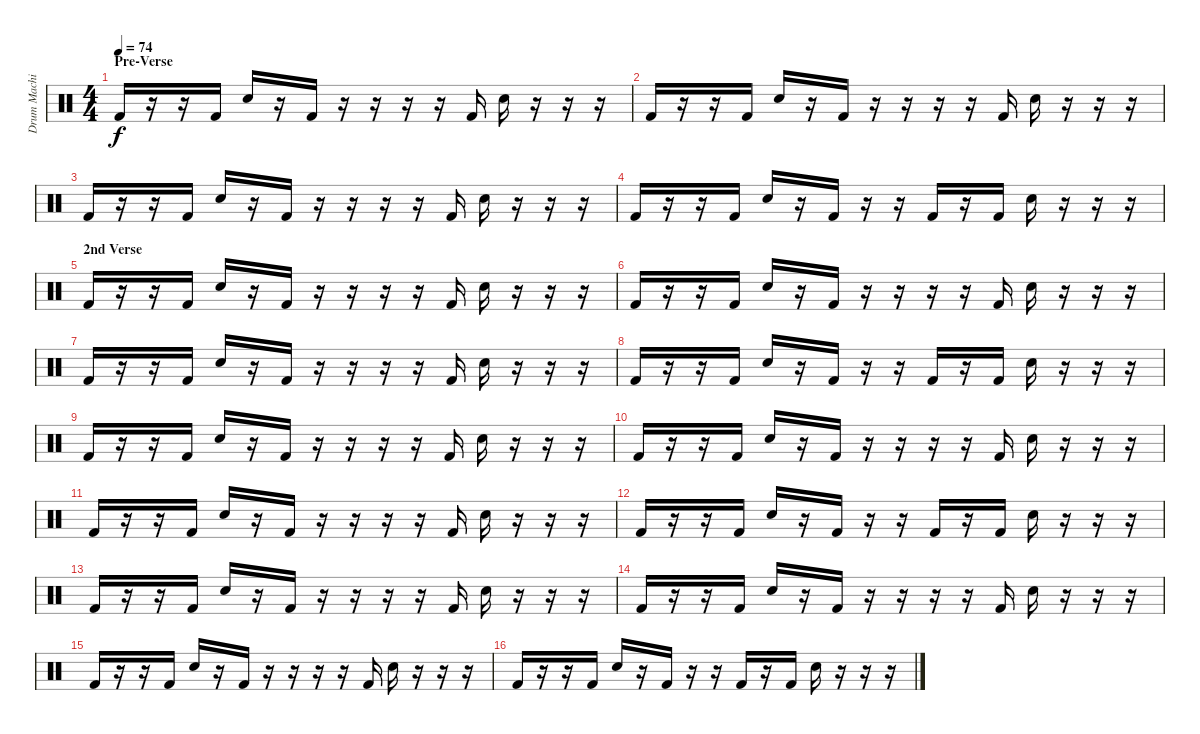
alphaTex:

\track ("Drum Machine" "Drum Machi") {instrument percussion}
\staff {score}
\articulation defaults
\ts (4 4)
\section ("" "Pre-Verse")
\tempo 74
\clef neutral
\ks c "Kick (hit) 2".16{dy f}
r.16 r.16 "Kick (hit) 2".16 "Electric Snare (hit)".16 r.16 "Kick (hit) 2".16 r.16 r.16 r.16 r.16 "Kick (hit) 2".16 "Electric Snare (hit)".16 r.16 r.16 r.16 |
"Kick (hit) 2".16 r.16 r.16 "Kick (hit) 2".16 "Electric Snare (hit)".16 r.16 "Kick (hit) 2".16 r.16 r.16 r.16 r.16 "Kick (hit) 2".16 "Electric Snare (hit)".16 r.16 r.16 r.16 |
"Kick (hit) 2".16 r.16 r.16 "Kick (hit) 2".16 "Electric Snare (hit)".16 r.16 "Kick (hit) 2".16 r.16 r.16 r.16 r.16 "Kick (hit) 2".16 "Electric Snare (hit)".16 r.16 r.16 r.16 |
"Kick (hit) 2".16 r.16 r.16 "Kick (hit) 2".16 "Electric Snare (hit)".16 r.16 "Kick (hit) 2".16 r.16 r.16 "Kick (hit) 2".16 r.16 "Kick (hit) 2".16 "Electric Snare (hit)".16 r.16 r.16 r.16 |
\section ("" "2nd Verse")
"Kick (hit) 2".16 r.16 r.16 "Kick (hit) 2".16 "Electric Snare (hit)".16 r.16 "Kick (hit) 2".16 r.16 r.16 r.16 r.16 "Kick (hit) 2".16 "Electric Snare (hit)".16 r.16 r.16 r.16 |
"Kick (hit) 2".16 r.16 r.16 "Kick (hit) 2".16 "Electric Snare (hit)".16 r.16 "Kick (hit) 2".16 r.16 r.16 r.16 r.16 "Kick (hit) 2".16 "Electric Snare (hit)".16 r.16 r.16 r.16 |
"Kick (hit) 2".16 r.16 r.16 "Kick (hit) 2".16 "Electric Snare (hit)".16 r.16 "Kick (hit) 2".16 r.16 r.16 r.16 r.16 "Kick (hit) 2".16 "Electric Snare (hit)".16 r.16 r.16 r.16 |
"Kick (hit) 2".16 r.16 r.16 "Kick (hit) 2".16 "Electric Snare (hit)".16 r.16 "Kick (hit) 2".16 r.16 r.16 "Kick (hit) 2".16 r.16 "Kick (hit) 2".16 "Electric Snare (hit)".16 r.16 r.16 r.16 |
"Kick (hit) 2".16 r.16 r.16 "Kick (hit) 2".16 "Electric Snare (hit)".16 r.16 "Kick (hit) 2".16 r.16 r.16 r.16 r.16 "Kick (hit) 2".16 "Electric Snare (hit)".16 r.16 r.16 r.16 |
"Kick (hit) 2".16 r.16 r.16 "Kick (hit) 2".16 "Electric Snare (hit)".16 r.16 "Kick (hit) 2".16 r.16 r.16 r.16 r.16 "Kick (hit) 2".16 "Electric Snare (hit)".16 r.16 r.16 r.16 |
"Kick (hit) 2".16 r.16 r.16 "Kick (hit) 2".16 "Electric Snare (hit)".16 r.16 "Kick (hit) 2".16 r.16 r.16 r.16 r.16 "Kick (hit) 2".16 "Electric Snare (hit)".16 r.16 r.16 r.16 |
"Kick (hit) 2".16 r.16 r.16 "Kick (hit) 2".16 "Electric Snare (hit)".16 r.16 "Kick (hit) 2".16 r.16 r.16 "Kick (hit) 2".16 r.16 "Kick (hit) 2".16 "Electric Snare (hit)".16 r.16 r.16 r.16 |
"Kick (hit) 2".16 r.16 r.16 "Kick (hit) 2".16 "Electric Snare (hit)".16 r.16 "Kick (hit) 2".16 r.16 r.16 r.16 r.16 "Kick (hit) 2".16 "Electric Snare (hit)".16 r.16 r.16 r.16 |
"Kick (hit) 2".16 r.16 r.16 "Kick (hit) 2".16 "Electric Snare (hit)".16 r.16 "Kick (hit) 2".16 r.16 r.16 r.16 r.16 "Kick (hit) 2".16 "Electric Snare (hit)".16 r.16 r.16 r.16 |
"Kick (hit) 2".16 r.16 r.16 "Kick (hit) 2".16 "Electric Snare (hit)".16 r.16 "Kick (hit) 2".16 r.16 r.16 r.16 r.16 "Kick (hit) 2".16 "Electric Snare (hit)".16 r.16 r.16 r.16 |
"Kick (hit) 2".16 r.16 r.16 "Kick (hit) 2".16 "Electric Snare (hit)".16 r.16 "Kick (hit) 2".16 r.16 r.16 "Kick (hit) 2".16 r.16 "Kick (hit) 2".16 "Electric Snare (hit)".16 r.16 r.16 r.16
